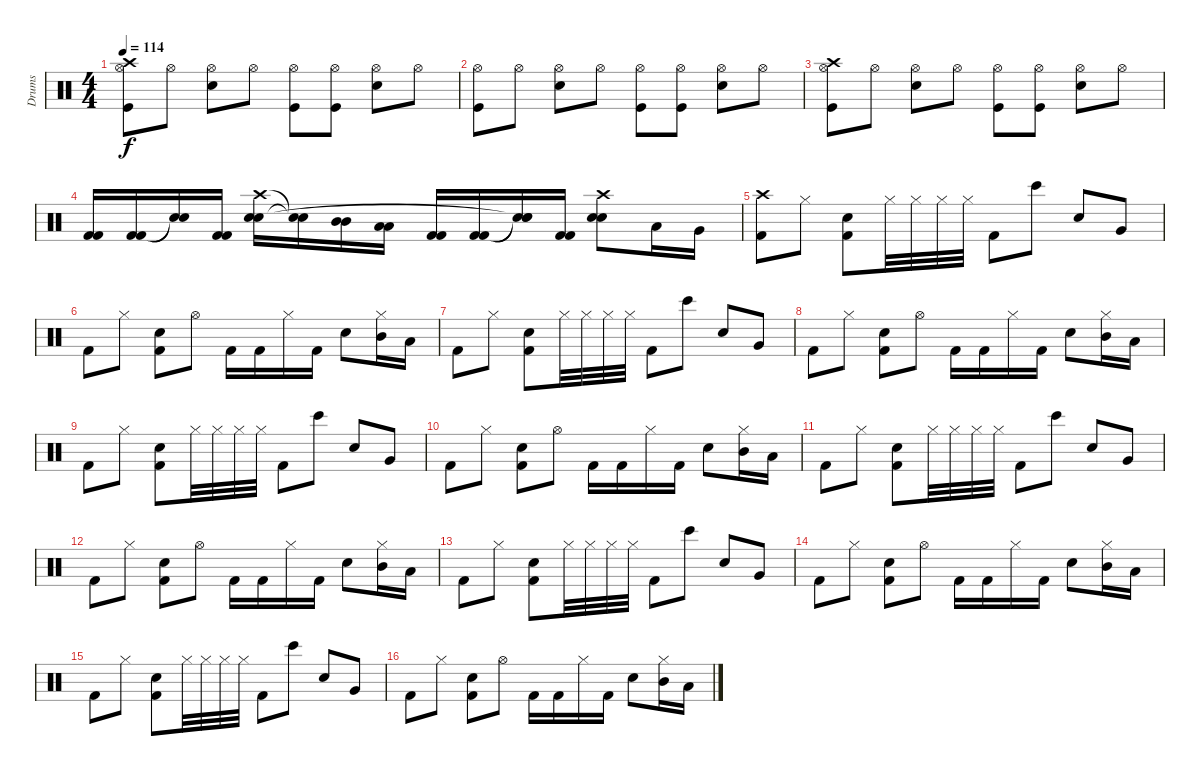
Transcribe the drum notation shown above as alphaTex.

\track ("Drums               " "Drums     ") {instrument percussion}
\staff {score}
\articulation defaults
\ts (4 4)
\tempo 114
\clef neutral
\ks c
("Kick (hit)" "Hi-Hat (open)" "Crash high (hit)").8{dy f} "Hi-Hat (open)".8 ("Snare (hit) 2" "Hi-Hat (open)").8 "Hi-Hat (open)".8 ("Kick (hit)" "Hi-Hat (open)").8 ("Kick (hit)" "Hi-Hat (open)").8 ("Snare (hit) 2" "Hi-Hat (open)").8 "Hi-Hat (open)".8 |
("Kick (hit)" "Hi-Hat (open)").8 "Hi-Hat (open)".8 ("Snare (hit) 2" "Hi-Hat (open)").8 "Hi-Hat (open)".8 ("Kick (hit)" "Hi-Hat (open)").8 ("Kick (hit)" "Hi-Hat (open)").8 ("Snare (hit) 2" "Hi-Hat (open)").8 "Hi-Hat (open)".8 |
("Kick (hit)" "Hi-Hat (open)" "Crash high (hit)").8 "Hi-Hat (open)".8 ("Snare (hit) 2" "Hi-Hat (open)").8 "Hi-Hat (open)".8 ("Kick (hit)" "Hi-Hat (open)").8 ("Kick (hit)" "Hi-Hat (open)").8 ("Snare (hit) 2" "Hi-Hat (open)").8 "Hi-Hat (open)".8 |
("Kick (hit) 2" "Kick (hit) 2").16 ("Kick (hit) 2" "Kick (hit) 2").16 ("Snare (hit)"{t} "Snare (hit)"{t}).16 ("Kick (hit) 2" "Kick (hit) 2").16 ("Crash high (hit)" "Snare (hit) 2" "Snare (hit) 2").16 ("Snare (hit)"{t} "Snare (hit)"{t}).16 ("Mid Tom (hit)" "Mid Tom (hit)").16 ("Low Tom (hit)" "Low Tom (hit)").16 ("Kick (hit) 2" "Kick (hit) 2").16 ("Kick (hit) 2" "Kick (hit) 2").16 ("Snare (hit)"{t} "Snare (hit)"{t} "Snare (hit)"{t}).16 ("Kick (hit) 2" "Kick (hit) 2").16 ("Crash high (hit)" "Snare (hit) 2" "Snare (hit) 2").8 "Low Tom (hit)".16 "Very Low Tom (hit)".16 |
("Crash high (hit)" "Kick (hit) 2").8 "Hi-Hat (closed)".8 ("Snare (hit) 2" "Kick (hit) 2").8 "Hi-Hat (closed)".32 "Hi-Hat (closed)".32 "Hi-Hat (closed)".32 "Hi-Hat (closed)".32 "Kick (hit) 2".8 "Bongo High (hit)".8 "Snare (hit) 2".8 "Very Low Tom (hit)".8 |
"Kick (hit) 2".8 "Hi-Hat (closed)".8 ("Snare (hit) 2" "Kick (hit) 2").8 "Hi-Hat (open)".8 "Kick (hit) 2".16 "Kick (hit) 2".16 "Hi-Hat (closed)".16 "Kick (hit) 2".16 "Snare (hit) 2".8 ("Hi-Hat (closed)" "Mid Tom (hit)").16 "Low Tom (hit)".16 |
"Kick (hit) 2".8 "Hi-Hat (closed)".8 ("Snare (hit) 2" "Kick (hit) 2").8 "Hi-Hat (closed)".32 "Hi-Hat (closed)".32 "Hi-Hat (closed)".32 "Hi-Hat (closed)".32 "Kick (hit) 2".8 "Bongo High (hit)".8 "Snare (hit) 2".8 "Very Low Tom (hit)".8 |
"Kick (hit) 2".8 "Hi-Hat (closed)".8 ("Snare (hit) 2" "Kick (hit) 2").8 "Hi-Hat (open)".8 "Kick (hit) 2".16 "Kick (hit) 2".16 "Hi-Hat (closed)".16 "Kick (hit) 2".16 "Snare (hit) 2".8 ("Hi-Hat (closed)" "Mid Tom (hit)").16 "Low Tom (hit)".16 |
"Kick (hit) 2".8 "Hi-Hat (closed)".8 ("Snare (hit) 2" "Kick (hit) 2").8 "Hi-Hat (closed)".32 "Hi-Hat (closed)".32 "Hi-Hat (closed)".32 "Hi-Hat (closed)".32 "Kick (hit) 2".8 "Bongo High (hit)".8 "Snare (hit) 2".8 "Very Low Tom (hit)".8 |
"Kick (hit) 2".8 "Hi-Hat (closed)".8 ("Snare (hit) 2" "Kick (hit) 2").8 "Hi-Hat (open)".8 "Kick (hit) 2".16 "Kick (hit) 2".16 "Hi-Hat (closed)".16 "Kick (hit) 2".16 "Snare (hit) 2".8 ("Hi-Hat (closed)" "Mid Tom (hit)").16 "Low Tom (hit)".16 |
"Kick (hit) 2".8 "Hi-Hat (closed)".8 ("Snare (hit) 2" "Kick (hit) 2").8 "Hi-Hat (closed)".32 "Hi-Hat (closed)".32 "Hi-Hat (closed)".32 "Hi-Hat (closed)".32 "Kick (hit) 2".8 "Bongo High (hit)".8 "Snare (hit) 2".8 "Very Low Tom (hit)".8 |
"Kick (hit) 2".8 "Hi-Hat (closed)".8 ("Snare (hit) 2" "Kick (hit) 2").8 "Hi-Hat (open)".8 "Kick (hit) 2".16 "Kick (hit) 2".16 "Hi-Hat (closed)".16 "Kick (hit) 2".16 "Snare (hit) 2".8 ("Hi-Hat (closed)" "Mid Tom (hit)").16 "Low Tom (hit)".16 |
"Kick (hit) 2".8 "Hi-Hat (closed)".8 ("Snare (hit) 2" "Kick (hit) 2").8 "Hi-Hat (closed)".32 "Hi-Hat (closed)".32 "Hi-Hat (closed)".32 "Hi-Hat (closed)".32 "Kick (hit) 2".8 "Bongo High (hit)".8 "Snare (hit) 2".8 "Very Low Tom (hit)".8 |
"Kick (hit) 2".8 "Hi-Hat (closed)".8 ("Snare (hit) 2" "Kick (hit) 2").8 "Hi-Hat (open)".8 "Kick (hit) 2".16 "Kick (hit) 2".16 "Hi-Hat (closed)".16 "Kick (hit) 2".16 "Snare (hit) 2".8 ("Hi-Hat (closed)" "Mid Tom (hit)").16 "Low Tom (hit)".16 |
"Kick (hit) 2".8 "Hi-Hat (closed)".8 ("Snare (hit) 2" "Kick (hit) 2").8 "Hi-Hat (closed)".32 "Hi-Hat (closed)".32 "Hi-Hat (closed)".32 "Hi-Hat (closed)".32 "Kick (hit) 2".8 "Bongo High (hit)".8 "Snare (hit) 2".8 "Very Low Tom (hit)".8 |
"Kick (hit) 2".8 "Hi-Hat (closed)".8 ("Snare (hit) 2" "Kick (hit) 2").8 "Hi-Hat (open)".8 "Kick (hit) 2".16 "Kick (hit) 2".16 "Hi-Hat (closed)".16 "Kick (hit) 2".16 "Snare (hit) 2".8 ("Hi-Hat (closed)" "Mid Tom (hit)").16 "Low Tom (hit)".16
